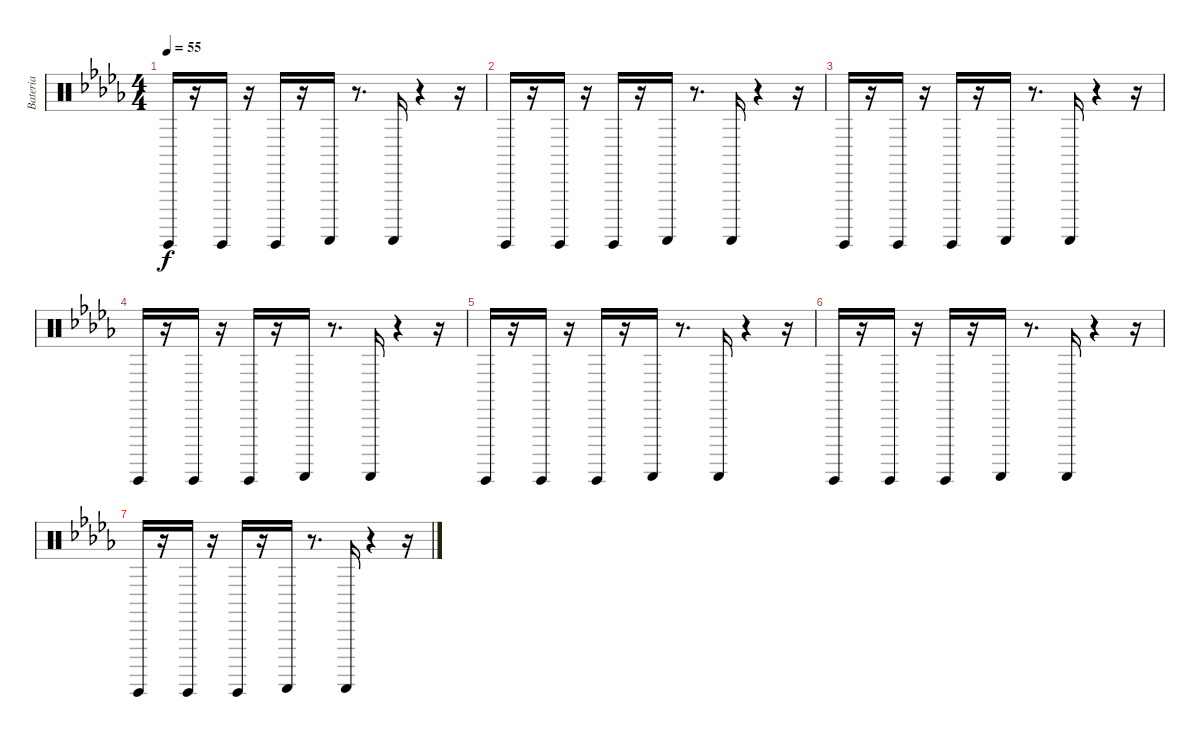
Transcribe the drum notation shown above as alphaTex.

\track ("Bateria" "Bateria") {instrument percussion}
\staff {score}
\articulation defaults
\ts (4 4)
\tempo 55
\clef neutral
\ks db "Guiro (hit)".16{dy f}
r.16 "Guiro (hit)".16 r.16 "Guiro (hit)".16 r.16 "Guiro (scrap-return)".16 r.8{d} "Guiro (scrap-return)".16 r.4 r.16 |
"Guiro (hit)".16 r.16 "Guiro (hit)".16 r.16 "Guiro (hit)".16 r.16 "Guiro (scrap-return)".16 r.8{d} "Guiro (scrap-return)".16 r.4 r.16 |
"Guiro (hit)".16 r.16 "Guiro (hit)".16 r.16 "Guiro (hit)".16 r.16 "Guiro (scrap-return)".16 r.8{d} "Guiro (scrap-return)".16 r.4 r.16 |
"Guiro (hit)".16 r.16 "Guiro (hit)".16 r.16 "Guiro (hit)".16 r.16 "Guiro (scrap-return)".16 r.8{d} "Guiro (scrap-return)".16 r.4 r.16 |
"Guiro (hit)".16 r.16 "Guiro (hit)".16 r.16 "Guiro (hit)".16 r.16 "Guiro (scrap-return)".16 r.8{d} "Guiro (scrap-return)".16 r.4 r.16 |
"Guiro (hit)".16 r.16 "Guiro (hit)".16 r.16 "Guiro (hit)".16 r.16 "Guiro (scrap-return)".16 r.8{d} "Guiro (scrap-return)".16 r.4 r.16 |
"Guiro (hit)".16 r.16 "Guiro (hit)".16 r.16 "Guiro (hit)".16 r.16 "Guiro (scrap-return)".16 r.8{d} "Guiro (scrap-return)".16 r.4 r.16
